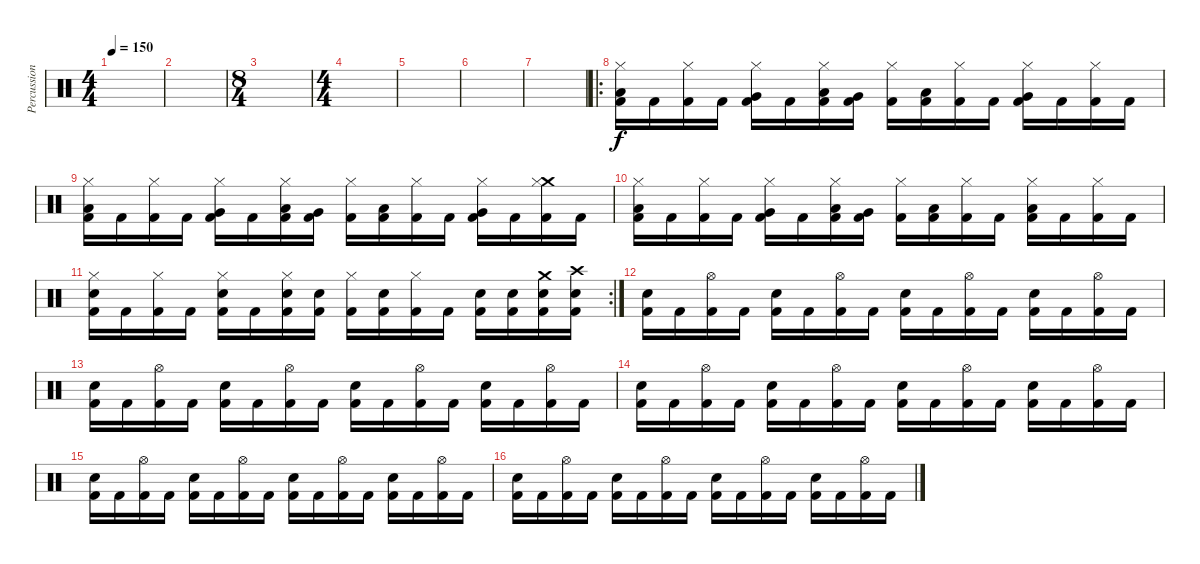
\track ("Percussions" "Percussion") {instrument percussion}
\staff {score}
\articulation defaults
\ts (4 4)
\tempo 150
\clef neutral
\ks c
|
|
\ts (8 4)
|
\ts (4 4)
|
|
|
|
\ro
("Hi-Hat (closed)" "Low Floor Tom (hit)" "Kick (hit) 2").16 "Kick (hit) 2".16 ("Hi-Hat (closed)" "Kick (hit) 2").16 "Kick (hit) 2".16 ("Hi-Hat (closed)" "Very Low Tom (hit)" "Kick (hit) 2").16 "Kick (hit) 2".16 ("Hi-Hat (closed)" "Low Tom (hit)" "Kick (hit) 2").16 ("Very Low Tom (hit)" "Kick (hit) 2").16 ("Hi-Hat (closed)" "Kick (hit) 2").16 ("Low Floor Tom (hit)" "Kick (hit) 2").16 ("Hi-Hat (closed)" "Kick (hit) 2").16 "Kick (hit) 2".16 ("Hi-Hat (closed)" "Very Low Tom (hit)" "Kick (hit) 2").16 "Kick (hit) 2".16 ("Hi-Hat (closed)" "Kick (hit) 2").16 "Kick (hit) 2".16 |
("Hi-Hat (closed)" "Low Floor Tom (hit)" "Kick (hit) 2").16 "Kick (hit) 2".16 ("Hi-Hat (closed)" "Kick (hit) 2").16 "Kick (hit) 2".16 ("Hi-Hat (closed)" "Very Low Tom (hit)" "Kick (hit) 2").16 "Kick (hit) 2".16 ("Hi-Hat (closed)" "Low Tom (hit)" "Kick (hit) 2").16 ("Very Low Tom (hit)" "Kick (hit) 2").16 ("Hi-Hat (closed)" "Kick (hit) 2").16 ("Low Floor Tom (hit)" "Kick (hit) 2").16 ("Hi-Hat (closed)" "Kick (hit) 2").16 "Kick (hit) 2".16 ("Hi-Hat (closed)" "Very Low Tom (hit)" "Kick (hit) 2").16 "Kick (hit) 2".16 ("Crash medium (hit)" "Hi-Hat (closed)" "Kick (hit) 2").16 "Kick (hit) 2".16 |
("Hi-Hat (closed)" "Low Floor Tom (hit)" "Kick (hit) 2").16 "Kick (hit) 2".16 ("Hi-Hat (closed)" "Kick (hit) 2").16 "Kick (hit) 2".16 ("Hi-Hat (closed)" "Very Low Tom (hit)" "Kick (hit) 2").16 "Kick (hit) 2".16 ("Hi-Hat (closed)" "Low Tom (hit)" "Kick (hit) 2").16 ("Very Low Tom (hit)" "Kick (hit) 2").16 ("Hi-Hat (closed)" "Kick (hit) 2").16 ("Low Floor Tom (hit)" "Kick (hit) 2").16 ("Hi-Hat (closed)" "Kick (hit) 2").16 "Kick (hit) 2".16 ("Hi-Hat (closed)" "Low Floor Tom (hit)" "Kick (hit) 2").16 "Kick (hit) 2".16 ("Hi-Hat (closed)" "Kick (hit) 2").16 "Kick (hit) 2".16 |
\rc 2
("Hi-Hat (closed)" "Electric Snare (hit)" "Kick (hit) 2").16 "Kick (hit) 2".16 ("Hi-Hat (closed)" "Kick (hit) 2").16 "Kick (hit) 2".16 ("Hi-Hat (closed)" "Electric Snare (hit)" "Kick (hit) 2").16 "Kick (hit) 2".16 ("Hi-Hat (closed)" "Electric Snare (hit)" "Kick (hit) 2").16 ("Electric Snare (hit)" "Kick (hit) 2").16 ("Hi-Hat (closed)" "Kick (hit) 2").16 ("Electric Snare (hit)" "Kick (hit) 2").16 ("Hi-Hat (closed)" "Kick (hit) 2").16 "Kick (hit) 2".16 ("Electric Snare (hit)" "Kick (hit) 2").16 ("Electric Snare (hit)" "Kick (hit) 2").16 ("Crash medium (hit)" "Electric Snare (hit)" "Kick (hit) 2").16 ("Crash high (hit)" "Electric Snare (hit)" "Kick (hit) 2").16 |
("Electric Snare (hit)" "Kick (hit) 2").16 "Kick (hit) 2".16 ("Hi-Hat (open)" "Kick (hit) 2").16 "Kick (hit) 2".16 ("Electric Snare (hit)" "Kick (hit) 2").16 "Kick (hit) 2".16 ("Hi-Hat (open)" "Kick (hit) 2").16 "Kick (hit) 2".16 ("Electric Snare (hit)" "Kick (hit) 2").16 "Kick (hit) 2".16 ("Hi-Hat (open)" "Kick (hit) 2").16 "Kick (hit) 2".16 ("Electric Snare (hit)" "Kick (hit) 2").16 "Kick (hit) 2".16 ("Hi-Hat (open)" "Kick (hit) 2").16 "Kick (hit) 2".16 |
("Electric Snare (hit)" "Kick (hit) 2").16 "Kick (hit) 2".16 ("Hi-Hat (open)" "Kick (hit) 2").16 "Kick (hit) 2".16 ("Electric Snare (hit)" "Kick (hit) 2").16 "Kick (hit) 2".16 ("Hi-Hat (open)" "Kick (hit) 2").16 "Kick (hit) 2".16 ("Electric Snare (hit)" "Kick (hit) 2").16 "Kick (hit) 2".16 ("Hi-Hat (open)" "Kick (hit) 2").16 "Kick (hit) 2".16 ("Electric Snare (hit)" "Kick (hit) 2").16 "Kick (hit) 2".16 ("Hi-Hat (open)" "Kick (hit) 2").16 "Kick (hit) 2".16 |
("Electric Snare (hit)" "Kick (hit) 2").16 "Kick (hit) 2".16 ("Hi-Hat (open)" "Kick (hit) 2").16 "Kick (hit) 2".16 ("Electric Snare (hit)" "Kick (hit) 2").16 "Kick (hit) 2".16 ("Hi-Hat (open)" "Kick (hit) 2").16 "Kick (hit) 2".16 ("Electric Snare (hit)" "Kick (hit) 2").16 "Kick (hit) 2".16 ("Hi-Hat (open)" "Kick (hit) 2").16 "Kick (hit) 2".16 ("Electric Snare (hit)" "Kick (hit) 2").16 "Kick (hit) 2".16 ("Hi-Hat (open)" "Kick (hit) 2").16 "Kick (hit) 2".16 |
("Electric Snare (hit)" "Kick (hit) 2").16 "Kick (hit) 2".16 ("Hi-Hat (open)" "Kick (hit) 2").16 "Kick (hit) 2".16 ("Electric Snare (hit)" "Kick (hit) 2").16 "Kick (hit) 2".16 ("Hi-Hat (open)" "Kick (hit) 2").16 "Kick (hit) 2".16 ("Electric Snare (hit)" "Kick (hit) 2").16 "Kick (hit) 2".16 ("Hi-Hat (open)" "Kick (hit) 2").16 "Kick (hit) 2".16 ("Electric Snare (hit)" "Kick (hit) 2").16 "Kick (hit) 2".16 ("Hi-Hat (open)" "Kick (hit) 2").16 "Kick (hit) 2".16 |
("Electric Snare (hit)" "Kick (hit) 2").16 "Kick (hit) 2".16 ("Hi-Hat (open)" "Kick (hit) 2").16 "Kick (hit) 2".16 ("Electric Snare (hit)" "Kick (hit) 2").16 "Kick (hit) 2".16 ("Hi-Hat (open)" "Kick (hit) 2").16 "Kick (hit) 2".16 ("Electric Snare (hit)" "Kick (hit) 2").16 "Kick (hit) 2".16 ("Hi-Hat (open)" "Kick (hit) 2").16 "Kick (hit) 2".16 ("Electric Snare (hit)" "Kick (hit) 2").16 "Kick (hit) 2".16 ("Hi-Hat (open)" "Kick (hit) 2").16 "Kick (hit) 2".16
